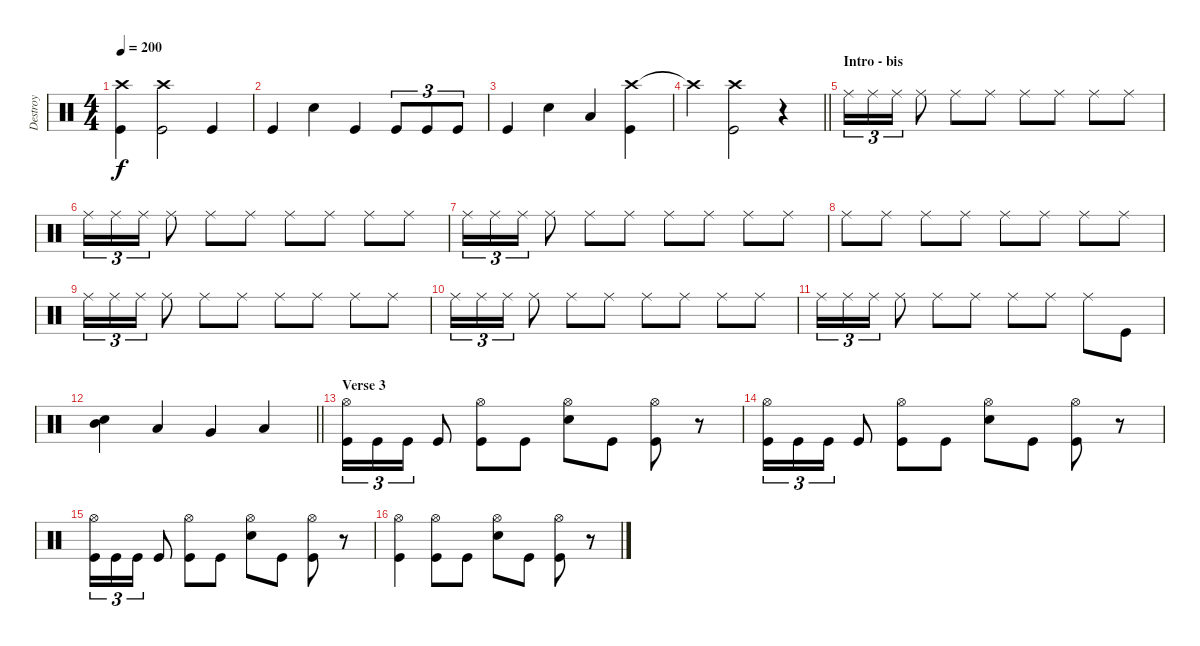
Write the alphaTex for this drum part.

\track ("Destroy" "Destroy") {instrument percussion}
\staff {score}
\articulation defaults
\ts (4 4)
\tempo 200
\clef neutral
\ks c
("Crash high (hit)" "Kick (hit)").4{dy f} ("Crash high (hit)" "Kick (hit)").2 "Kick (hit)".4 |
"Kick (hit)".4 "Snare (hit) 2".4 "Kick (hit)".4 "Kick (hit)".8{tu (3 2)} "Kick (hit)".8{tu (3 2)} "Kick (hit)".8{tu (3 2)} |
"Kick (hit)".4 "Snare (hit) 2".4 "Low Tom (hit)".4 ("Crash high (hit)" "Kick (hit)").4 |
\barLineRight lightlight "Crash high (hit)"{t}.4
("Crash high (hit)" "Kick (hit)").2 r.4 |
\section ("" "Intro - bis")
"Ride (middle)".16{tu (3 2)} "Ride (middle)".16{tu (3 2)} "Ride (middle)".16{tu (3 2)} "Ride (middle)".8 "Ride (middle)".8 "Ride (middle)".8 "Ride (middle)".8 "Ride (middle)".8 "Ride (middle)".8 "Ride (middle)".8 |
"Ride (middle)".16{tu (3 2)} "Ride (middle)".16{tu (3 2)} "Ride (middle)".16{tu (3 2)} "Ride (middle)".8 "Ride (middle)".8 "Ride (middle)".8 "Ride (middle)".8 "Ride (middle)".8 "Ride (middle)".8 "Ride (middle)".8 |
"Ride (middle)".16{tu (3 2)} "Ride (middle)".16{tu (3 2)} "Ride (middle)".16{tu (3 2)} "Ride (middle)".8 "Ride (middle)".8 "Ride (middle)".8 "Ride (middle)".8 "Ride (middle)".8 "Ride (middle)".8 "Ride (middle)".8 |
"Ride (middle)".8 "Ride (middle)".8 "Ride (middle)".8 "Ride (middle)".8 "Ride (middle)".8 "Ride (middle)".8 "Ride (middle)".8 "Ride (middle)".8 |
"Ride (middle)".16{tu (3 2)} "Ride (middle)".16{tu (3 2)} "Ride (middle)".16{tu (3 2)} "Ride (middle)".8 "Ride (middle)".8 "Ride (middle)".8 "Ride (middle)".8 "Ride (middle)".8 "Ride (middle)".8 "Ride (middle)".8 |
"Ride (middle)".16{tu (3 2)} "Ride (middle)".16{tu (3 2)} "Ride (middle)".16{tu (3 2)} "Ride (middle)".8 "Ride (middle)".8 "Ride (middle)".8 "Ride (middle)".8 "Ride (middle)".8 "Ride (middle)".8 "Ride (middle)".8 |
"Ride (middle)".16{tu (3 2)} "Ride (middle)".16{tu (3 2)} "Ride (middle)".16{tu (3 2)} "Ride (middle)".8 "Ride (middle)".8 "Ride (middle)".8 "Ride (middle)".8 "Ride (middle)".8 "Ride (middle)".8 "Kick (hit)".8 |
\barLineRight lightlight
("Mid Tom (hit)" "Snare (hit) 2").4 "Low Tom (hit)".4 "Very Low Tom (hit)".4 "Low Floor Tom (hit)".4 |
\section ("" "Verse 3")
("Hi-Hat (open)" "Kick (hit)").16{tu (3 2)} "Kick (hit)".16{tu (3 2)} "Kick (hit)".16{tu (3 2)} "Kick (hit)".8 ("Hi-Hat (open)" "Kick (hit)").8 "Kick (hit)".8 ("Hi-Hat (open)" "Snare (hit) 2").8 "Kick (hit)".8 ("Hi-Hat (open)" "Kick (hit)").8 r.8 |
("Hi-Hat (open)" "Kick (hit)").16{tu (3 2)} "Kick (hit)".16{tu (3 2)} "Kick (hit)".16{tu (3 2)} "Kick (hit)".8 ("Hi-Hat (open)" "Kick (hit)").8 "Kick (hit)".8 ("Hi-Hat (open)" "Snare (hit) 2").8 "Kick (hit)".8 ("Hi-Hat (open)" "Kick (hit)").8 r.8 |
("Hi-Hat (open)" "Kick (hit)").16{tu (3 2)} "Kick (hit)".16{tu (3 2)} "Kick (hit)".16{tu (3 2)} "Kick (hit)".8 ("Hi-Hat (open)" "Kick (hit)").8 "Kick (hit)".8 ("Hi-Hat (open)" "Snare (hit) 2").8 "Kick (hit)".8 ("Hi-Hat (open)" "Kick (hit)").8 r.8 |
("Hi-Hat (open)" "Kick (hit)").4 ("Hi-Hat (open)" "Kick (hit)").8 "Kick (hit)".8 ("Hi-Hat (open)" "Snare (hit) 2").8 "Kick (hit)".8 ("Hi-Hat (open)" "Kick (hit)").8 r.8
